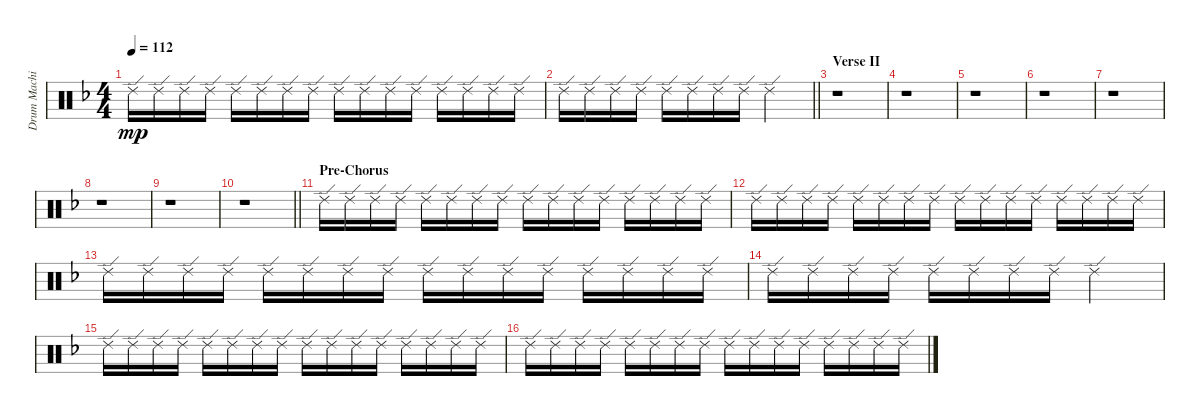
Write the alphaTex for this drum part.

\track ("Drum Machine" "Drum Machi") {instrument percussion}
\staff {score}
\articulation defaults
\ts (4 4)
\tempo 112
\clef neutral
\ks f "Ride (edge) 2".16{dy mp} "Ride (edge) 2".16 "Ride (edge) 2".16 "Ride (edge) 2".16 "Ride (edge) 2".16 "Ride (edge) 2".16 "Ride (edge) 2".16 "Ride (edge) 2".16 "Ride (edge) 2".16 "Ride (edge) 2".16 "Ride (edge) 2".16 "Ride (edge) 2".16 "Ride (edge) 2".16 "Ride (edge) 2".16 "Ride (edge) 2".16 "Ride (edge) 2".16
|
\barLineRight lightlight "Ride (edge) 2".16 "Ride (edge) 2".16 "Ride (edge) 2".16 "Ride (edge) 2".16 "Ride (edge) 2".16 "Ride (edge) 2".16 "Ride (edge) 2".16 "Ride (edge) 2".16 "Ride (edge) 2".2
|
\section ("" "Verse II")
r.1 |
r.1 |
r.1 |
r.1 |
r.1 |
r.1 |
r.1 |
\barLineRight lightlight
r.1 |
\section ("" "Pre-Chorus")
"Ride (edge) 2".16 "Ride (edge) 2".16 "Ride (edge) 2".16 "Ride (edge) 2".16 "Ride (edge) 2".16 "Ride (edge) 2".16 "Ride (edge) 2".16 "Ride (edge) 2".16 "Ride (edge) 2".16 "Ride (edge) 2".16 "Ride (edge) 2".16 "Ride (edge) 2".16 "Ride (edge) 2".16 "Ride (edge) 2".16 "Ride (edge) 2".16 "Ride (edge) 2".16 |
"Ride (edge) 2".16 "Ride (edge) 2".16 "Ride (edge) 2".16 "Ride (edge) 2".16 "Ride (edge) 2".16 "Ride (edge) 2".16 "Ride (edge) 2".16 "Ride (edge) 2".16 "Ride (edge) 2".16 "Ride (edge) 2".16 "Ride (edge) 2".16 "Ride (edge) 2".16 "Ride (edge) 2".16 "Ride (edge) 2".16 "Ride (edge) 2".16 "Ride (edge) 2".16 |
"Ride (edge) 2".16 "Ride (edge) 2".16 "Ride (edge) 2".16 "Ride (edge) 2".16 "Ride (edge) 2".16 "Ride (edge) 2".16 "Ride (edge) 2".16 "Ride (edge) 2".16 "Ride (edge) 2".16 "Ride (edge) 2".16 "Ride (edge) 2".16 "Ride (edge) 2".16 "Ride (edge) 2".16 "Ride (edge) 2".16 "Ride (edge) 2".16 "Ride (edge) 2".16 |
"Ride (edge) 2".16 "Ride (edge) 2".16 "Ride (edge) 2".16 "Ride (edge) 2".16 "Ride (edge) 2".16 "Ride (edge) 2".16 "Ride (edge) 2".16 "Ride (edge) 2".16 "Ride (edge) 2".2 |
"Ride (edge) 2".16 "Ride (edge) 2".16 "Ride (edge) 2".16 "Ride (edge) 2".16 "Ride (edge) 2".16 "Ride (edge) 2".16 "Ride (edge) 2".16 "Ride (edge) 2".16 "Ride (edge) 2".16 "Ride (edge) 2".16 "Ride (edge) 2".16 "Ride (edge) 2".16 "Ride (edge) 2".16 "Ride (edge) 2".16 "Ride (edge) 2".16 "Ride (edge) 2".16 |
"Ride (edge) 2".16 "Ride (edge) 2".16 "Ride (edge) 2".16 "Ride (edge) 2".16 "Ride (edge) 2".16 "Ride (edge) 2".16 "Ride (edge) 2".16 "Ride (edge) 2".16 "Ride (edge) 2".16 "Ride (edge) 2".16 "Ride (edge) 2".16 "Ride (edge) 2".16 "Ride (edge) 2".16 "Ride (edge) 2".16 "Ride (edge) 2".16 "Ride (edge) 2".16
